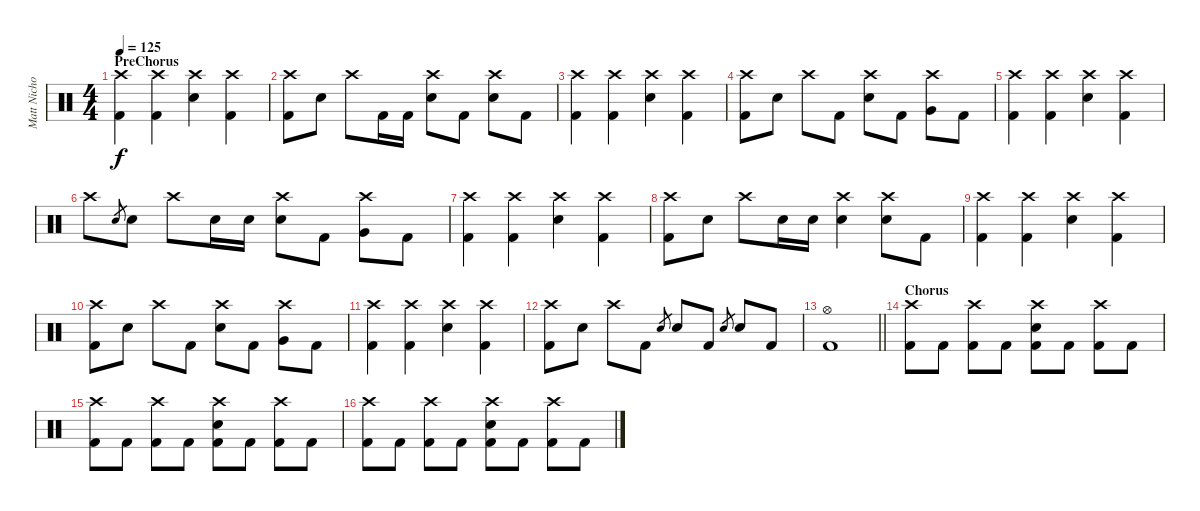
\track ("Matt Nicholls" "Matt Nicho") {instrument percussion}
\staff {score}
\articulation defaults
\ts (4 4)
\section ("" "PreChorus")
\tempo 125
\clef neutral
\ks c
("Crash high (hit)" "Kick (hit) 2").4{dy f volume 16} ("Crash high (hit)" "Kick (hit) 2").4 ("Crash high (hit)" "Electric Snare (hit)").4 ("Crash high (hit)" "Kick (hit) 2").4 |
("Crash high (hit)" "Kick (hit) 2").8 "Electric Snare (hit)".8 "Crash high (hit)".8 "Kick (hit) 2".16 "Kick (hit) 2".16 ("Crash high (hit)" "Electric Snare (hit)").8 "Kick (hit) 2".8 ("Crash high (hit)" "Electric Snare (hit)").8 "Kick (hit) 2".8 |
("Crash high (hit)" "Kick (hit) 2").4 ("Crash high (hit)" "Kick (hit) 2").4 ("Crash high (hit)" "Electric Snare (hit)").4 ("Crash high (hit)" "Kick (hit) 2").4 |
("Crash high (hit)" "Kick (hit) 2").8 "Electric Snare (hit)".8 "Crash high (hit)".8 "Kick (hit) 2".8 ("Crash high (hit)" "Electric Snare (hit)").8 "Kick (hit) 2".8 ("Crash high (hit)" "Very Low Tom (hit)").8 "Kick (hit) 2".8 |
("Crash high (hit)" "Kick (hit) 2").4 ("Crash high (hit)" "Kick (hit) 2").4 ("Crash high (hit)" "Electric Snare (hit)").4 ("Crash high (hit)" "Kick (hit) 2").4 |
"Crash high (hit)".8 "Electric Snare (hit)".8{gr} "Electric Snare (hit)".8 "Crash high (hit)".8 "Electric Snare (hit)".16 "Electric Snare (hit)".16 ("Crash high (hit)" "Electric Snare (hit)").8 "Kick (hit) 2".8 ("Crash high (hit)" "Very Low Tom (hit)").8 "Kick (hit) 2".8 |
("Crash high (hit)" "Kick (hit) 2").4 ("Crash high (hit)" "Kick (hit) 2").4 ("Crash high (hit)" "Electric Snare (hit)").4 ("Crash high (hit)" "Kick (hit) 2").4 |
("Crash high (hit)" "Kick (hit) 2").8 "Electric Snare (hit)".8 "Crash high (hit)".8 "Electric Snare (hit)".16 "Electric Snare (hit)".16 ("Crash high (hit)" "Electric Snare (hit)").4 ("Crash high (hit)" "Electric Snare (hit)").8 "Kick (hit) 2".8 |
("Crash high (hit)" "Kick (hit) 2").4 ("Crash high (hit)" "Kick (hit) 2").4 ("Crash high (hit)" "Electric Snare (hit)").4 ("Crash high (hit)" "Kick (hit) 2").4 |
("Crash high (hit)" "Kick (hit) 2").8 "Electric Snare (hit)".8 "Crash high (hit)".8 "Kick (hit) 2".8 ("Crash high (hit)" "Electric Snare (hit)").8 "Kick (hit) 2".8 ("Crash high (hit)" "Very Low Tom (hit)").8 "Kick (hit) 2".8 |
("Crash high (hit)" "Kick (hit) 2").4 ("Crash high (hit)" "Kick (hit) 2").4 ("Crash high (hit)" "Electric Snare (hit)").4 ("Crash high (hit)" "Kick (hit) 2").4 |
("Crash high (hit)" "Kick (hit) 2").8 "Electric Snare (hit)".8 "Crash high (hit)".8 "Kick (hit) 2".8 "Electric Snare (hit)".8{gr} "Electric Snare (hit)".8 "Kick (hit) 2".8 "Electric Snare (hit)".8{gr} "Electric Snare (hit)".8 "Kick (hit) 2".8 |
\barLineRight lightlight
("Hi-Hat (open)" "Kick (hit) 2").1 |
\section ("" "Chorus")
("Crash high (hit)" "Kick (hit) 2").8 "Kick (hit) 2".8 ("Crash high (hit)" "Kick (hit) 2").8 "Kick (hit) 2".8 ("Crash high (hit)" "Electric Snare (hit)" "Kick (hit) 2").8 "Kick (hit) 2".8 ("Crash high (hit)" "Kick (hit) 2").8 "Kick (hit) 2".8 |
("Crash high (hit)" "Kick (hit) 2").8 "Kick (hit) 2".8 ("Crash high (hit)" "Kick (hit) 2").8 "Kick (hit) 2".8 ("Crash high (hit)" "Electric Snare (hit)" "Kick (hit) 2").8 "Kick (hit) 2".8 ("Crash high (hit)" "Kick (hit) 2").8 "Kick (hit) 2".8 |
("Crash high (hit)" "Kick (hit) 2").8 "Kick (hit) 2".8 ("Crash high (hit)" "Kick (hit) 2").8 "Kick (hit) 2".8 ("Crash high (hit)" "Electric Snare (hit)" "Kick (hit) 2").8 "Kick (hit) 2".8 ("Crash high (hit)" "Kick (hit) 2").8 "Kick (hit) 2".8
